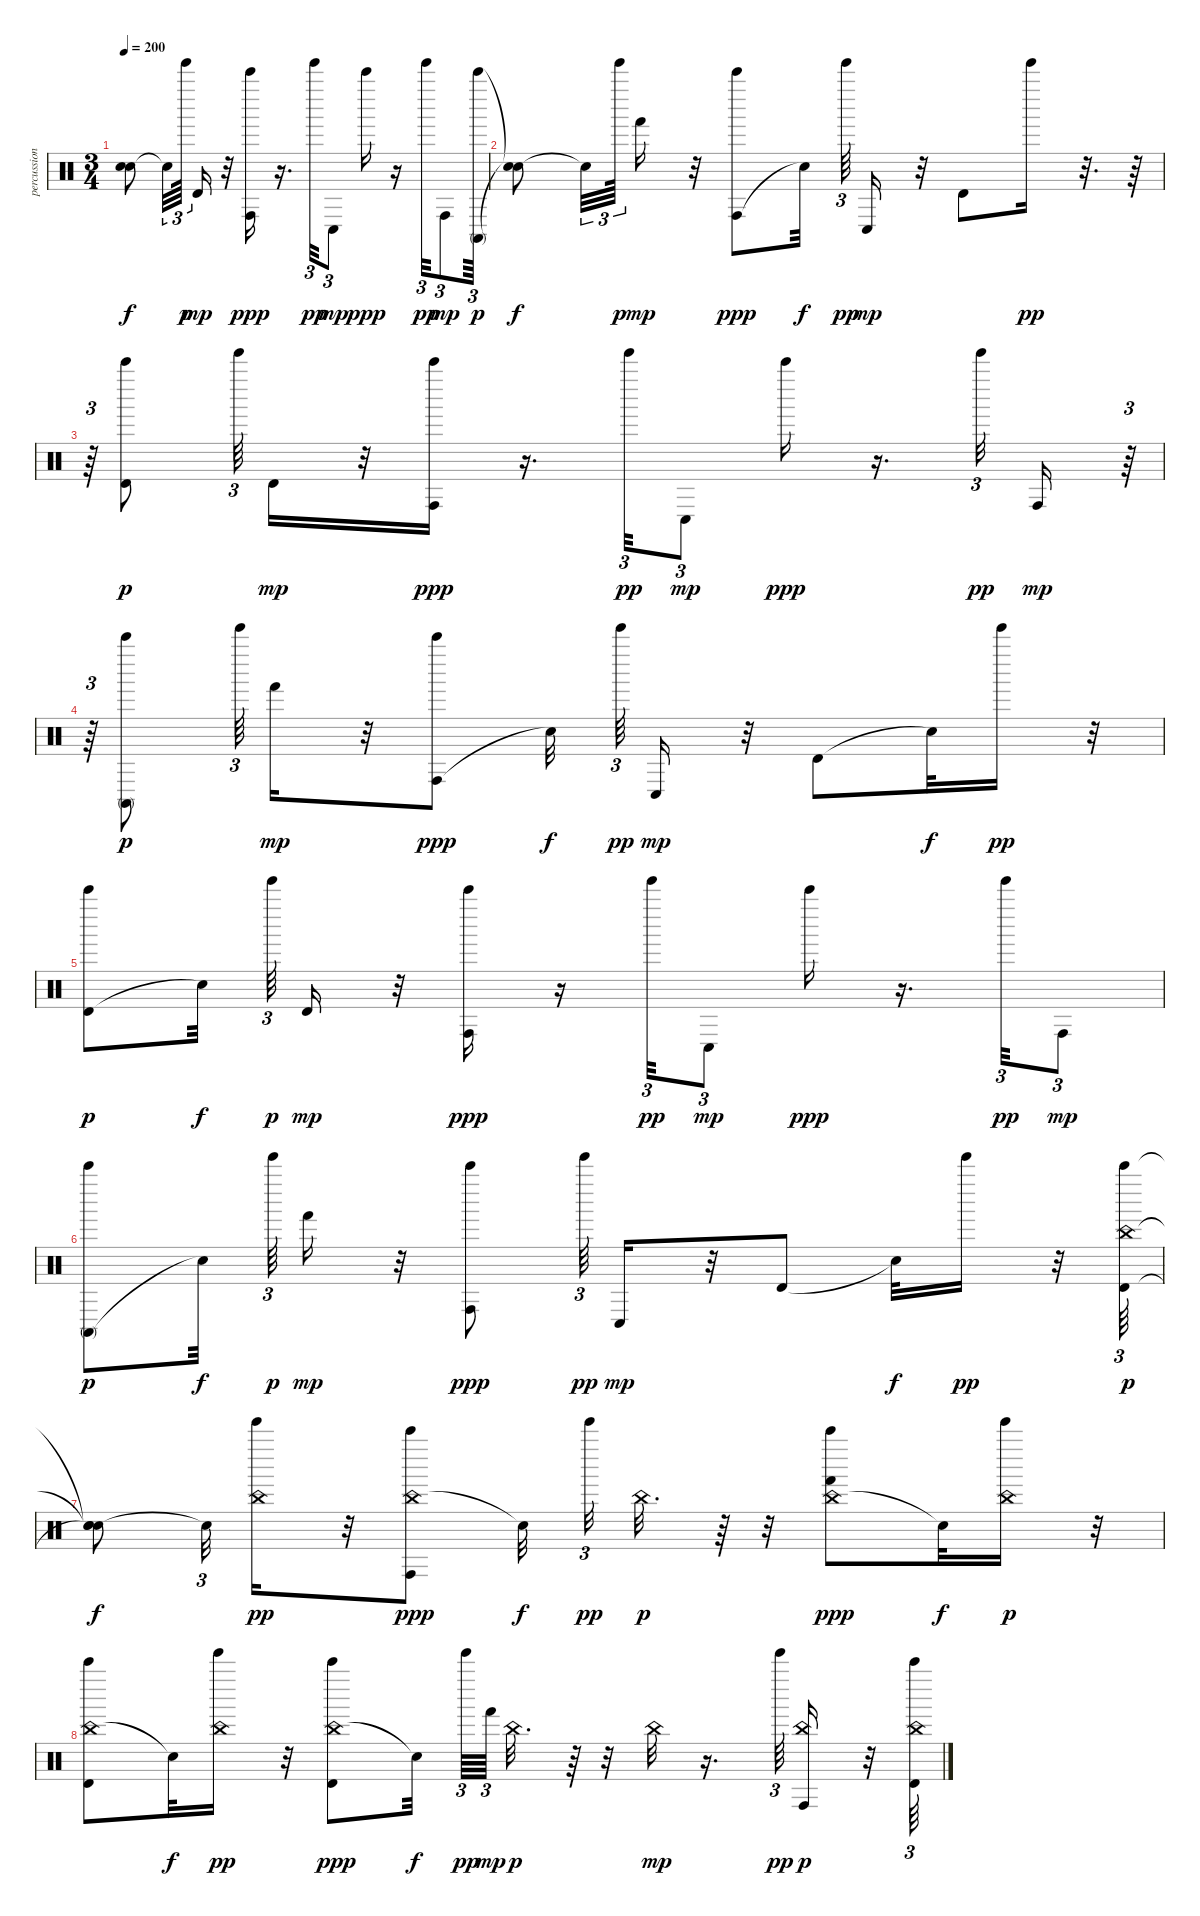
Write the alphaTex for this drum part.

\track ("percussion" "percussion") {instrument percussion}
\staff {score}
\articulation defaults
\ts (3 4)
\tempo 200
\clef neutral
\ks c
("Snare (hit)"{t} "Snare (hit)"{t}).8{dy f} "Snare (hit)"{t}.32{tu (3 2)} "Tinkle Bell (hit)".64{tu (3 2) dy p} "Timbale high (hit)".16{dy mp} r.32 ("Conga high (hit)" "Bell Tree (hit)").16{dy ppp} r.16{d} "Tinkle Bell (hit)".32{tu (3 2) dy pp} "Conga low (hit)".8{tu (3 2) dy mp} "Bell Tree (hit)".16{dy ppp} r.16 "Tinkle Bell (hit)".32{tu (3 2) dy pp} "Conga high (hit)".8{tu (3 2) dy mp} ("Conga high (mute)" "Bell Tree (hit)").64{tu (3 2) dy p} |
("Snare (hit)"{t} "Snare (hit)"{t}).8{dy f} "Snare (hit)"{t}.32{tu (3 2)} "Tinkle Bell (hit)".64{tu (3 2) dy p} "Hand (hit)".16{dy mp} r.32 ("Conga high (hit)" "Bell Tree (hit)").8{dy ppp} "Snare (hit)"{t}.32{dy f} "Tinkle Bell (hit)".64{tu (3 2) dy pp} "Conga low (hit)".16{dy mp} r.32 "Timbale high (hit)".8 "Tinkle Bell (hit)".16{dy pp} r.32{d} r.64 |
r.64{tu (3 2)} ("Timbale high (hit)" "Bell Tree (hit)").8{dy p} "Tinkle Bell (hit)".64{tu (3 2)} "Timbale high (hit)".16{dy mp} r.32 ("Conga high (hit)" "Bell Tree (hit)").16{dy ppp} r.16{d} "Tinkle Bell (hit)".32{tu (3 2) dy pp} "Conga low (hit)".8{tu (3 2) dy mp} "Bell Tree (hit)".16{dy ppp} r.16{d} "Tinkle Bell (hit)".32{tu (3 2) dy pp} "Conga high (hit)".16{dy mp} r.64{tu (3 2)} |
r.64{tu (3 2)} ("Conga high (mute)" "Bell Tree (hit)").8{dy p} "Tinkle Bell (hit)".64{tu (3 2)} "Hand (hit)".16{dy mp} r.32 ("Conga high (hit)" "Bell Tree (hit)").8{dy ppp} "Snare (hit)"{t}.32{dy f} "Tinkle Bell (hit)".64{tu (3 2) dy pp} "Conga low (hit)".16{dy mp} r.32 "Timbale high (hit)".8 "Snare (hit)"{t}.32{dy f} "Tinkle Bell (hit)".16{dy pp} r.32 |
("Timbale high (hit)" "Bell Tree (hit)").8{dy p} "Snare (hit)"{t}.32{dy f} "Tinkle Bell (hit)".64{tu (3 2) dy p} "Timbale high (hit)".16{dy mp} r.32 ("Conga high (hit)" "Bell Tree (hit)").16{dy ppp} r.16 "Tinkle Bell (hit)".32{tu (3 2) dy pp} "Conga low (hit)".8{tu (3 2) dy mp} "Bell Tree (hit)".16{dy ppp} r.16{d} "Tinkle Bell (hit)".32{tu (3 2) dy pp} "Conga high (hit)".8{tu (3 2) dy mp} |
("Conga high (mute)" "Bell Tree (hit)").8{dy p} "Snare (hit)"{t}.32{dy f} "Tinkle Bell (hit)".64{tu (3 2) dy p} "Hand (hit)".16{dy mp} r.32 ("Conga high (hit)" "Bell Tree (hit)").8{dy ppp} "Tinkle Bell (hit)".64{tu (3 2) dy pp} "Conga low (hit)".16{dy mp} r.32 "Timbale high (hit)".8 "Snare (hit)"{t}.32{dy f} "Tinkle Bell (hit)".16{dy pp} r.32 ("China (hit)" "Timbale high (hit)" "Bell Tree (hit)").64{tu (3 2) dy p} |
("Snare (hit)"{t} "Snare (hit)"{t} "Snare (hit)"{t}).8{dy f} "Snare (hit)"{t}.32{tu (3 2)} ("Tinkle Bell (hit)" "China (hit)").16{dy pp} r.32 ("China (hit)" "Conga high (hit)" "Bell Tree (hit)").8{dy ppp} "Snare (hit)"{t}.32{dy f} "Tinkle Bell (hit)".32{tu (3 2) dy pp} "China (hit)".32{d dy p} r.64 r.32 ("China (hit)" "Hand (hit)" "Bell Tree (hit)").8{dy ppp} "Snare (hit)"{t}.32{dy f} ("Tinkle Bell (hit)" "China (hit)").16{dy p} r.32 |
("China (hit)" "Timbale high (hit)" "Bell Tree (hit)").8 "Snare (hit)"{t}.32{dy f} ("Tinkle Bell (hit)" "China (hit)").16{dy pp} r.32 ("China (hit)" "Timbale high (hit)" "Bell Tree (hit)").8{dy ppp} "Snare (hit)"{t}.32{dy f} "Tinkle Bell (hit)".64{tu (3 2) dy pp} "Hand (hit)".64{tu (3 2) dy mp} "China (hit)".32{d dy p} r.64 r.32 "China (hit)".32{dy mp} r.16{d} "Tinkle Bell (hit)".64{tu (3 2) dy pp} ("Conga high (hit)" "China (hit)").16{dy p} r.32 ("China (hit)" "Timbale high (hit)" "Bell Tree (hit)").64{tu (3 2)}
